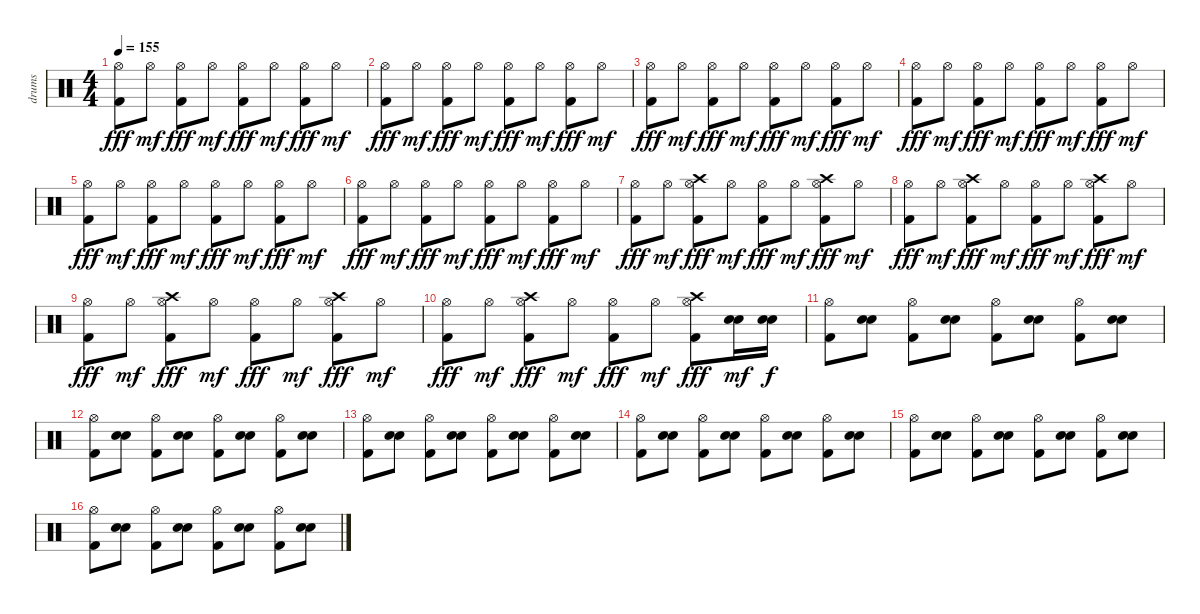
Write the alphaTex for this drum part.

\track ("drums" "drums") {instrument percussion}
\staff {score}
\articulation defaults
\ts (4 4)
\tempo 155
\clef neutral
\ks c
("Hi-Hat (open)" "Kick (hit) 2").8{dy fff} "Hi-Hat (open)".8{dy mf} ("Hi-Hat (open)" "Kick (hit) 2").8{dy fff} "Hi-Hat (open)".8{dy mf} ("Hi-Hat (open)" "Kick (hit) 2").8{dy fff} "Hi-Hat (open)".8{dy mf} ("Hi-Hat (open)" "Kick (hit) 2").8{dy fff} "Hi-Hat (open)".8{dy mf} |
("Hi-Hat (open)" "Kick (hit) 2").8{dy fff} "Hi-Hat (open)".8{dy mf} ("Hi-Hat (open)" "Kick (hit) 2").8{dy fff} "Hi-Hat (open)".8{dy mf} ("Hi-Hat (open)" "Kick (hit) 2").8{dy fff} "Hi-Hat (open)".8{dy mf} ("Hi-Hat (open)" "Kick (hit) 2").8{dy fff} "Hi-Hat (open)".8{dy mf} |
("Hi-Hat (open)" "Kick (hit) 2").8{dy fff} "Hi-Hat (open)".8{dy mf} ("Hi-Hat (open)" "Kick (hit) 2").8{dy fff} "Hi-Hat (open)".8{dy mf} ("Hi-Hat (open)" "Kick (hit) 2").8{dy fff} "Hi-Hat (open)".8{dy mf} ("Hi-Hat (open)" "Kick (hit) 2").8{dy fff} "Hi-Hat (open)".8{dy mf} |
("Hi-Hat (open)" "Kick (hit) 2").8{dy fff} "Hi-Hat (open)".8{dy mf} ("Hi-Hat (open)" "Kick (hit) 2").8{dy fff} "Hi-Hat (open)".8{dy mf} ("Hi-Hat (open)" "Kick (hit) 2").8{dy fff} "Hi-Hat (open)".8{dy mf} ("Hi-Hat (open)" "Kick (hit) 2").8{dy fff} "Hi-Hat (open)".8{dy mf} |
("Hi-Hat (open)" "Kick (hit) 2").8{dy fff} "Hi-Hat (open)".8{dy mf} ("Hi-Hat (open)" "Kick (hit) 2").8{dy fff} "Hi-Hat (open)".8{dy mf} ("Hi-Hat (open)" "Kick (hit) 2").8{dy fff} "Hi-Hat (open)".8{dy mf} ("Hi-Hat (open)" "Kick (hit) 2").8{dy fff} "Hi-Hat (open)".8{dy mf} |
("Hi-Hat (open)" "Kick (hit) 2").8{dy fff} "Hi-Hat (open)".8{dy mf} ("Hi-Hat (open)" "Kick (hit) 2").8{dy fff} "Hi-Hat (open)".8{dy mf} ("Hi-Hat (open)" "Kick (hit) 2").8{dy fff} "Hi-Hat (open)".8{dy mf} ("Hi-Hat (open)" "Kick (hit) 2").8{dy fff} "Hi-Hat (open)".8{dy mf} |
("Hi-Hat (open)" "Kick (hit) 2").8{dy fff} "Hi-Hat (open)".8{dy mf} ("Crash high (hit)" "Hi-Hat (open)" "Kick (hit) 2").8{dy fff} "Hi-Hat (open)".8{dy mf} ("Hi-Hat (open)" "Kick (hit) 2").8{dy fff} "Hi-Hat (open)".8{dy mf} ("Crash high (hit)" "Hi-Hat (open)" "Kick (hit) 2").8{dy fff} "Hi-Hat (open)".8{dy mf} |
("Hi-Hat (open)" "Kick (hit) 2").8{dy fff} "Hi-Hat (open)".8{dy mf} ("Crash high (hit)" "Hi-Hat (open)" "Kick (hit) 2").8{dy fff} "Hi-Hat (open)".8{dy mf} ("Hi-Hat (open)" "Kick (hit) 2").8{dy fff} "Hi-Hat (open)".8{dy mf} ("Crash high (hit)" "Hi-Hat (open)" "Kick (hit) 2").8{dy fff} "Hi-Hat (open)".8{dy mf} |
("Hi-Hat (open)" "Kick (hit) 2").8{dy fff} "Hi-Hat (open)".8{dy mf} ("Crash high (hit)" "Hi-Hat (open)" "Kick (hit) 2").8{dy fff} "Hi-Hat (open)".8{dy mf} ("Hi-Hat (open)" "Kick (hit) 2").8{dy fff} "Hi-Hat (open)".8{dy mf} ("Crash high (hit)" "Hi-Hat (open)" "Kick (hit) 2").8{dy fff} "Hi-Hat (open)".8{dy mf} |
("Hi-Hat (open)" "Kick (hit) 2").8{dy fff} "Hi-Hat (open)".8{dy mf} ("Crash high (hit)" "Hi-Hat (open)" "Kick (hit) 2").8{dy fff} "Hi-Hat (open)".8{dy mf} ("Hi-Hat (open)" "Kick (hit) 2").8{dy fff} "Hi-Hat (open)".8{dy mf} ("Crash high (hit)" "Hi-Hat (open)" "Kick (hit) 2").8{dy fff} ("Snare (hit) 2" "Snare (hit) 2").16{dy mf} ("Snare (hit) 2" "Snare (hit) 2").16{dy f} |
("Hi-Hat (open)" "Kick (hit) 2").8 ("Snare (hit) 2" "Snare (hit) 2").8 ("Hi-Hat (open)" "Kick (hit) 2").8 ("Snare (hit) 2" "Snare (hit) 2").8 ("Hi-Hat (open)" "Kick (hit) 2").8 ("Snare (hit) 2" "Snare (hit) 2").8 ("Hi-Hat (open)" "Kick (hit) 2").8 ("Snare (hit) 2" "Snare (hit) 2").8 |
("Hi-Hat (open)" "Kick (hit) 2").8 ("Snare (hit) 2" "Snare (hit) 2").8 ("Hi-Hat (open)" "Kick (hit) 2").8 ("Snare (hit) 2" "Snare (hit) 2").8 ("Hi-Hat (open)" "Kick (hit) 2").8 ("Snare (hit) 2" "Snare (hit) 2").8 ("Hi-Hat (open)" "Kick (hit) 2").8 ("Snare (hit) 2" "Snare (hit) 2").8 |
("Hi-Hat (open)" "Kick (hit) 2").8 ("Snare (hit) 2" "Snare (hit) 2").8 ("Hi-Hat (open)" "Kick (hit) 2").8 ("Snare (hit) 2" "Snare (hit) 2").8 ("Hi-Hat (open)" "Kick (hit) 2").8 ("Snare (hit) 2" "Snare (hit) 2").8 ("Hi-Hat (open)" "Kick (hit) 2").8 ("Snare (hit) 2" "Snare (hit) 2").8 |
("Hi-Hat (open)" "Kick (hit) 2").8 ("Snare (hit) 2" "Snare (hit) 2").8 ("Hi-Hat (open)" "Kick (hit) 2").8 ("Snare (hit) 2" "Snare (hit) 2").8 ("Hi-Hat (open)" "Kick (hit) 2").8 ("Snare (hit) 2" "Snare (hit) 2").8 ("Hi-Hat (open)" "Kick (hit) 2").8 ("Snare (hit) 2" "Snare (hit) 2").8 |
("Hi-Hat (open)" "Kick (hit) 2").8 ("Snare (hit) 2" "Snare (hit) 2").8 ("Hi-Hat (open)" "Kick (hit) 2").8 ("Snare (hit) 2" "Snare (hit) 2").8 ("Hi-Hat (open)" "Kick (hit) 2").8 ("Snare (hit) 2" "Snare (hit) 2").8 ("Hi-Hat (open)" "Kick (hit) 2").8 ("Snare (hit) 2" "Snare (hit) 2").8 |
("Hi-Hat (open)" "Kick (hit) 2").8 ("Snare (hit) 2" "Snare (hit) 2").8 ("Hi-Hat (open)" "Kick (hit) 2").8 ("Snare (hit) 2" "Snare (hit) 2").8 ("Hi-Hat (open)" "Kick (hit) 2").8 ("Snare (hit) 2" "Snare (hit) 2").8 ("Hi-Hat (open)" "Kick (hit) 2").8 ("Snare (hit) 2" "Snare (hit) 2").8
